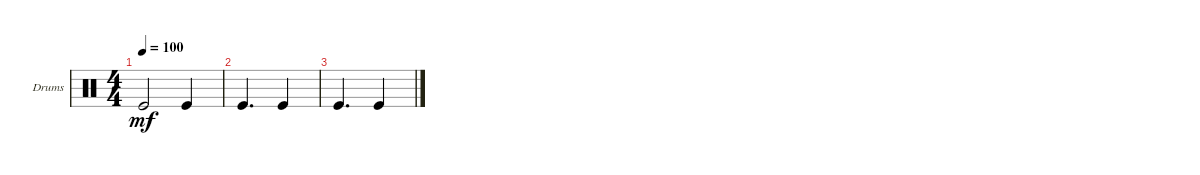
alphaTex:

\defaultSystemsLayout 4
\bracketExtendMode groupsimilarinstruments
\firstSystemTrackNameOrientation horizontal
\otherSystemsTrackNameOrientation horizontal
\track ("Drumkit" "Drums") {instrument percussion}
\staff {score}
\articulation defaults
\ts (4 4)
\tempo 100
\clef neutral
\ks c "Kick (hit)".2{dy mf} "Kick (hit)".4
|
"Kick (hit)".4{d} "Kick (hit)".4 |
\scale
0.333333 "Kick (hit)".4{d} "Kick (hit)".4 |
\scale
0.333333 |
\scale
0.333333 |
|
\scale
0.333333 |
|
\scale
0.333333 |
\scale
0.333333
